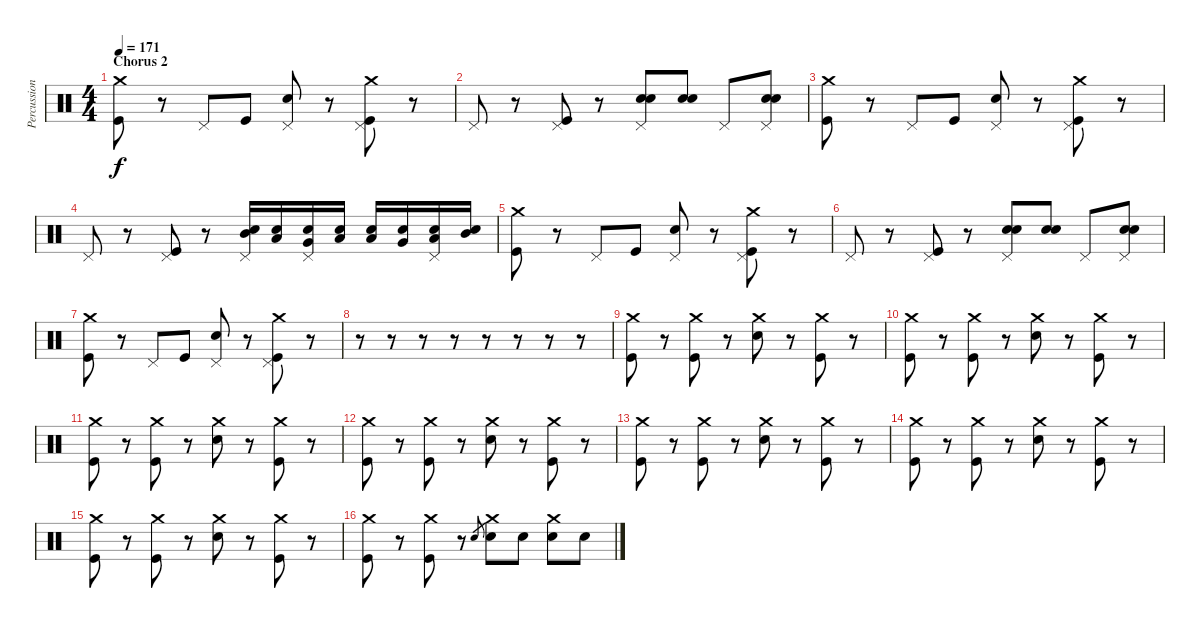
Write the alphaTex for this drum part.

\track ("Percussion" "Percussion") {instrument percussion}
\staff {score}
\articulation defaults
\ts (4 4)
\section ("" "Chorus 2")
\tempo 171
\clef neutral
\ks c
("Crash medium (hit)" "Kick (hit)").8{dy f} r.8 "Pedal Hi-Hat (hit)".8 "Kick (hit)".8 ("Pedal Hi-Hat (hit)" "Electric Snare (hit)").8 r.8 ("Crash medium (hit)" "Pedal Hi-Hat (hit)" "Kick (hit)").8 r.8 |
"Pedal Hi-Hat (hit)".8 r.8 ("Pedal Hi-Hat (hit)" "Kick (hit)").8 r.8 ("Pedal Hi-Hat (hit)" "Electric Snare (hit)" "Electric Snare (hit)").8 ("Electric Snare (hit)" "Electric Snare (hit)").8 "Pedal Hi-Hat (hit)".8 ("Pedal Hi-Hat (hit)" "Electric Snare (hit)" "Electric Snare (hit)").8 |
("Crash medium (hit)" "Kick (hit)").8 r.8 "Pedal Hi-Hat (hit)".8 "Kick (hit)".8 ("Pedal Hi-Hat (hit)" "Electric Snare (hit)").8 r.8 ("Crash medium (hit)" "Pedal Hi-Hat (hit)" "Kick (hit)").8 r.8 |
"Pedal Hi-Hat (hit)".8 r.8 ("Pedal Hi-Hat (hit)" "Kick (hit)").8 r.8 ("Pedal Hi-Hat (hit)" "Mid Tom (hit)" "Electric Snare (hit)").16 ("Low Tom (hit)" "Electric Snare (hit)").16 ("Pedal Hi-Hat (hit)" "Very Low Tom (hit)" "Electric Snare (hit)").16 ("Low Floor Tom (hit)" "Electric Snare (hit)").16 ("Low Floor Tom (hit)" "Electric Snare (hit)").16 ("Very Low Tom (hit)" "Electric Snare (hit)").16 ("Pedal Hi-Hat (hit)" "Low Tom (hit)" "Electric Snare (hit)").16 ("Mid Tom (hit)" "Electric Snare (hit)").16 |
("Crash medium (hit)" "Kick (hit)").8 r.8 "Pedal Hi-Hat (hit)".8 "Kick (hit)".8 ("Pedal Hi-Hat (hit)" "Electric Snare (hit)").8 r.8 ("Crash medium (hit)" "Pedal Hi-Hat (hit)" "Kick (hit)").8 r.8 |
"Pedal Hi-Hat (hit)".8 r.8 ("Pedal Hi-Hat (hit)" "Kick (hit)").8 r.8 ("Pedal Hi-Hat (hit)" "Electric Snare (hit)" "Electric Snare (hit)").8 ("Electric Snare (hit)" "Electric Snare (hit)").8 "Pedal Hi-Hat (hit)".8 ("Pedal Hi-Hat (hit)" "Electric Snare (hit)" "Electric Snare (hit)").8 |
("Crash medium (hit)" "Kick (hit)").8 r.8 "Pedal Hi-Hat (hit)".8 "Kick (hit)".8 ("Pedal Hi-Hat (hit)" "Electric Snare (hit)").8 r.8 ("Crash medium (hit)" "Pedal Hi-Hat (hit)" "Kick (hit)").8 r.8 |
r.8 r.8 r.8 r.8 r.8 r.8 r.8 r.8 |
("Crash medium (hit)" "Kick (hit)").8 r.8 ("Crash medium (hit)" "Kick (hit)").8 r.8 ("Crash medium (hit)" "Electric Snare (hit)").8 r.8 ("Crash medium (hit)" "Kick (hit)").8 r.8 |
("Crash medium (hit)" "Kick (hit)").8 r.8 ("Crash medium (hit)" "Kick (hit)").8 r.8 ("Crash medium (hit)" "Electric Snare (hit)").8 r.8 ("Crash medium (hit)" "Kick (hit)").8 r.8 |
("Crash medium (hit)" "Kick (hit)").8 r.8 ("Crash medium (hit)" "Kick (hit)").8 r.8 ("Crash medium (hit)" "Electric Snare (hit)").8 r.8 ("Crash medium (hit)" "Kick (hit)").8 r.8 |
("Crash medium (hit)" "Kick (hit)").8 r.8 ("Crash medium (hit)" "Kick (hit)").8 r.8 ("Crash medium (hit)" "Electric Snare (hit)").8 r.8 ("Crash medium (hit)" "Kick (hit)").8 r.8 |
("Crash medium (hit)" "Kick (hit)").8 r.8 ("Crash medium (hit)" "Kick (hit)").8 r.8 ("Crash medium (hit)" "Electric Snare (hit)").8 r.8 ("Crash medium (hit)" "Kick (hit)").8 r.8 |
("Crash medium (hit)" "Kick (hit)").8 r.8 ("Crash medium (hit)" "Kick (hit)").8 r.8 ("Crash medium (hit)" "Electric Snare (hit)").8 r.8 ("Crash medium (hit)" "Kick (hit)").8 r.8 |
("Crash medium (hit)" "Kick (hit)").8 r.8 ("Crash medium (hit)" "Kick (hit)").8 r.8 ("Crash medium (hit)" "Electric Snare (hit)").8 r.8 ("Crash medium (hit)" "Kick (hit)").8 r.8 |
("Crash medium (hit)" "Kick (hit)").8 r.8 ("Crash medium (hit)" "Kick (hit)").8 r.8 "Electric Snare (hit)".8{gr} ("Crash medium (hit)" "Electric Snare (hit)").8 "Electric Snare (hit)".8 ("Crash medium (hit)" "Electric Snare (hit)").8 "Electric Snare (hit)".8
